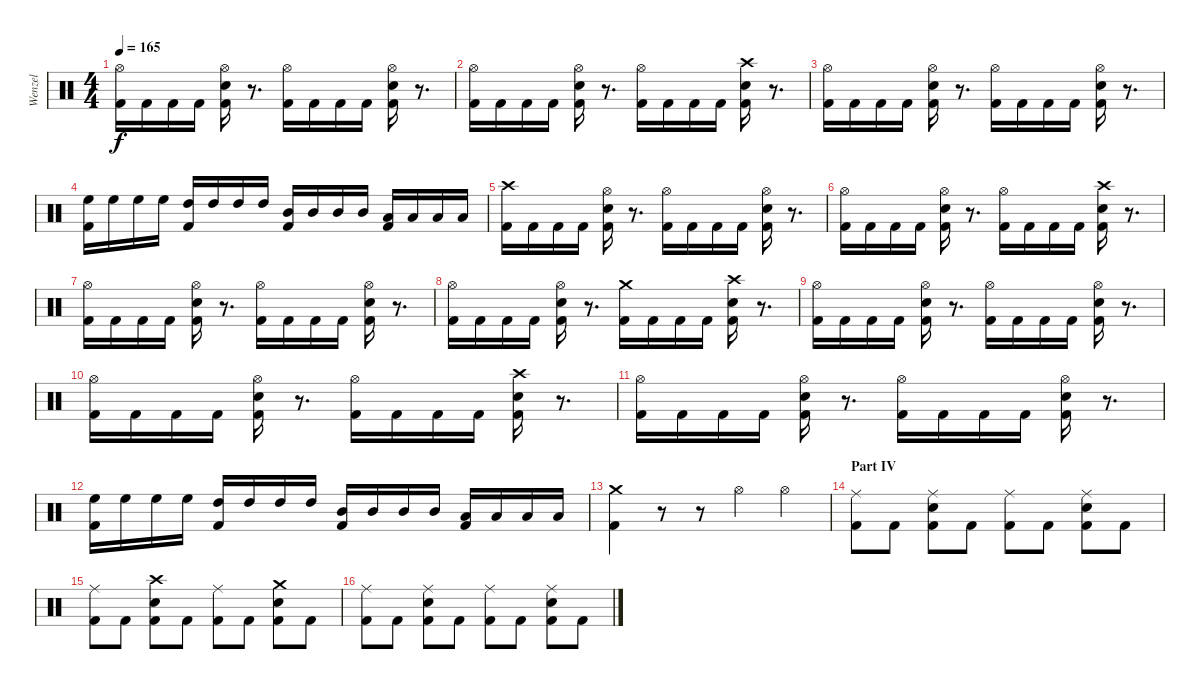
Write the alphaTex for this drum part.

\track ("Wenzel" "Wenzel") {instrument percussion}
\staff {score}
\articulation defaults
\ts (4 4)
\tempo 165
\clef neutral
\ks c
("Hi-Hat (open)" "Kick (hit) 2").16{dy f} "Kick (hit) 2".16 "Kick (hit) 2".16 "Kick (hit) 2".16 ("Hi-Hat (open)" "Snare (hit) 2" "Kick (hit) 2").16 r.8{d} ("Hi-Hat (open)" "Kick (hit) 2").16 "Kick (hit) 2".16 "Kick (hit) 2".16 "Kick (hit) 2".16 ("Hi-Hat (open)" "Snare (hit) 2" "Kick (hit) 2").16 r.8{d} |
("Hi-Hat (open)" "Kick (hit) 2").16 "Kick (hit) 2".16 "Kick (hit) 2".16 "Kick (hit) 2".16 ("Hi-Hat (open)" "Snare (hit) 2" "Kick (hit) 2").16 r.8{d} ("Hi-Hat (open)" "Kick (hit) 2").16 "Kick (hit) 2".16 "Kick (hit) 2".16 "Kick (hit) 2".16 ("Crash high (hit)" "Snare (hit) 2" "Kick (hit) 2").16 r.8{d} |
("Hi-Hat (open)" "Kick (hit) 2").16 "Kick (hit) 2".16 "Kick (hit) 2".16 "Kick (hit) 2".16 ("Hi-Hat (open)" "Snare (hit) 2" "Kick (hit) 2").16 r.8{d} ("Hi-Hat (open)" "Kick (hit) 2").16 "Kick (hit) 2".16 "Kick (hit) 2".16 "Kick (hit) 2".16 ("Hi-Hat (open)" "Snare (hit) 2" "Kick (hit) 2").16 r.8{d} |
("High Floor Tom (hit)" "Kick (hit) 2").16 "High Floor Tom (hit)".16 "High Floor Tom (hit)".16 "High Floor Tom (hit)".16 ("High Tom (hit)" "Kick (hit) 2").16 "High Tom (hit)".16 "High Tom (hit)".16 "High Tom (hit)".16 ("Mid Tom (hit)" "Kick (hit) 2").16 "Mid Tom (hit)".16 "Mid Tom (hit)".16 "Mid Tom (hit)".16 ("Low Tom (hit)" "Kick (hit) 2").16 "Low Tom (hit)".16 "Low Tom (hit)".16 "Low Tom (hit)".16 |
("Crash high (hit)" "Kick (hit) 2").16 "Kick (hit) 2".16 "Kick (hit) 2".16 "Kick (hit) 2".16 ("Hi-Hat (open)" "Snare (hit) 2" "Kick (hit) 2").16 r.8{d} ("Hi-Hat (open)" "Kick (hit) 2").16 "Kick (hit) 2".16 "Kick (hit) 2".16 "Kick (hit) 2".16 ("Hi-Hat (open)" "Snare (hit) 2" "Kick (hit) 2").16 r.8{d} |
("Hi-Hat (open)" "Kick (hit) 2").16 "Kick (hit) 2".16 "Kick (hit) 2".16 "Kick (hit) 2".16 ("Hi-Hat (open)" "Snare (hit) 2" "Kick (hit) 2").16 r.8{d} ("Hi-Hat (open)" "Kick (hit) 2").16 "Kick (hit) 2".16 "Kick (hit) 2".16 "Kick (hit) 2".16 ("Crash high (hit)" "Snare (hit) 2" "Kick (hit) 2").16 r.8{d} |
("Hi-Hat (open)" "Kick (hit) 2").16 "Kick (hit) 2".16 "Kick (hit) 2".16 "Kick (hit) 2".16 ("Hi-Hat (open)" "Snare (hit) 2" "Kick (hit) 2").16 r.8{d} ("Hi-Hat (open)" "Kick (hit) 2").16 "Kick (hit) 2".16 "Kick (hit) 2".16 "Kick (hit) 2".16 ("Hi-Hat (open)" "Snare (hit) 2" "Kick (hit) 2").16 r.8{d} |
("Hi-Hat (open)" "Kick (hit) 2").16 "Kick (hit) 2".16 "Kick (hit) 2".16 "Kick (hit) 2".16 ("Hi-Hat (open)" "Snare (hit) 2" "Kick (hit) 2").16 r.8{d} ("Crash medium (hit)" "Kick (hit) 2").16 "Kick (hit) 2".16 "Kick (hit) 2".16 "Kick (hit) 2".16 ("Crash high (hit)" "Snare (hit) 2" "Kick (hit) 2").16 r.8{d} |
("Hi-Hat (open)" "Kick (hit) 2").16 "Kick (hit) 2".16 "Kick (hit) 2".16 "Kick (hit) 2".16 ("Hi-Hat (open)" "Snare (hit) 2" "Kick (hit) 2").16 r.8{d} ("Hi-Hat (open)" "Kick (hit) 2").16 "Kick (hit) 2".16 "Kick (hit) 2".16 "Kick (hit) 2".16 ("Hi-Hat (open)" "Snare (hit) 2" "Kick (hit) 2").16 r.8{d} |
("Hi-Hat (open)" "Kick (hit) 2").16 "Kick (hit) 2".16 "Kick (hit) 2".16 "Kick (hit) 2".16 ("Hi-Hat (open)" "Snare (hit) 2" "Kick (hit) 2").16 r.8{d} ("Hi-Hat (open)" "Kick (hit) 2").16 "Kick (hit) 2".16 "Kick (hit) 2".16 "Kick (hit) 2".16 ("Crash high (hit)" "Snare (hit) 2" "Kick (hit) 2").16 r.8{d} |
("Hi-Hat (open)" "Kick (hit) 2").16 "Kick (hit) 2".16 "Kick (hit) 2".16 "Kick (hit) 2".16 ("Hi-Hat (open)" "Snare (hit) 2" "Kick (hit) 2").16 r.8{d} ("Hi-Hat (open)" "Kick (hit) 2").16 "Kick (hit) 2".16 "Kick (hit) 2".16 "Kick (hit) 2".16 ("Hi-Hat (open)" "Snare (hit) 2" "Kick (hit) 2").16 r.8{d} |
("High Floor Tom (hit)" "Kick (hit) 2").16 "High Floor Tom (hit)".16 "High Floor Tom (hit)".16 "High Floor Tom (hit)".16 ("High Tom (hit)" "Kick (hit) 2").16 "High Tom (hit)".16 "High Tom (hit)".16 "High Tom (hit)".16 ("Mid Tom (hit)" "Kick (hit) 2").16 "Mid Tom (hit)".16 "Mid Tom (hit)".16 "Mid Tom (hit)".16 ("Low Tom (hit)" "Kick (hit) 2").16 "Low Tom (hit)".16 "Low Tom (hit)".16 "Low Tom (hit)".16 |
("Crash medium (hit)" "Kick (hit) 2").4 r.8 r.8 "Hi-Hat (open)".4 "Hi-Hat (open)".4 |
\section ("" "Part IV")
("Ride (middle)" "Kick (hit) 2").8 "Kick (hit) 2".8 ("Ride (middle)" "Snare (hit) 2" "Kick (hit) 2").8 "Kick (hit) 2".8 ("Ride (middle)" "Kick (hit) 2").8 "Kick (hit) 2".8 ("Ride (middle)" "Snare (hit) 2" "Kick (hit) 2").8 "Kick (hit) 2".8 |
("Ride (middle)" "Kick (hit) 2").8 "Kick (hit) 2".8 ("Crash high (hit)" "Snare (hit) 2" "Kick (hit) 2").8 "Kick (hit) 2".8 ("Ride (middle)" "Kick (hit) 2").8 "Kick (hit) 2".8 ("Crash medium (hit)" "Snare (hit) 2" "Kick (hit) 2").8 "Kick (hit) 2".8 |
("Ride (middle)" "Kick (hit) 2").8 "Kick (hit) 2".8 ("Ride (middle)" "Snare (hit) 2" "Kick (hit) 2").8 "Kick (hit) 2".8 ("Ride (middle)" "Kick (hit) 2").8 "Kick (hit) 2".8 ("Ride (middle)" "Snare (hit) 2" "Kick (hit) 2").8 "Kick (hit) 2".8
